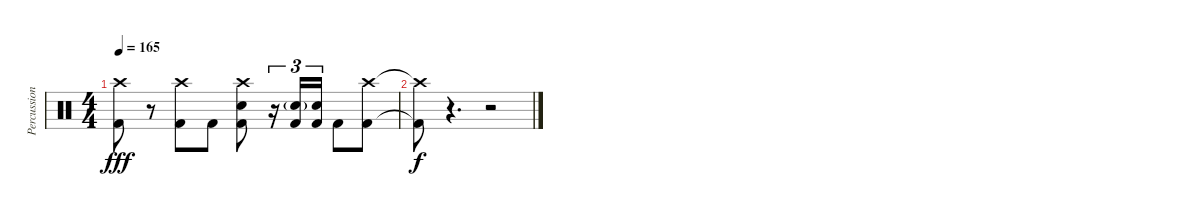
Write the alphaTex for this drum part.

\track ("Percussion" "Percussion") {instrument percussion}
\staff {score}
\articulation defaults
\ts (4 4)
\tempo 165
\clef neutral
\ks c
("Crash high (hit)" "Kick (hit) 2").8{dy fff} r.8 ("Crash high (hit)" "Kick (hit) 2").8 "Kick (hit) 2".8 ("Crash high (hit)" "Electric Snare (hit)" "Kick (hit) 2").8 r.16{tu (3 2)} ("Electric Snare (hit)"{g} "Kick (hit) 2").16{tu (3 2)} ("Electric Snare (hit)" "Kick (hit) 2").16{tu (3 2)} "Kick (hit) 2".8 ("Crash high (hit)" "Kick (hit) 2").8 |
("Crash high (hit)"{t} "Kick (hit) 2"{t}).8{dy f} r.4{d} r.2
